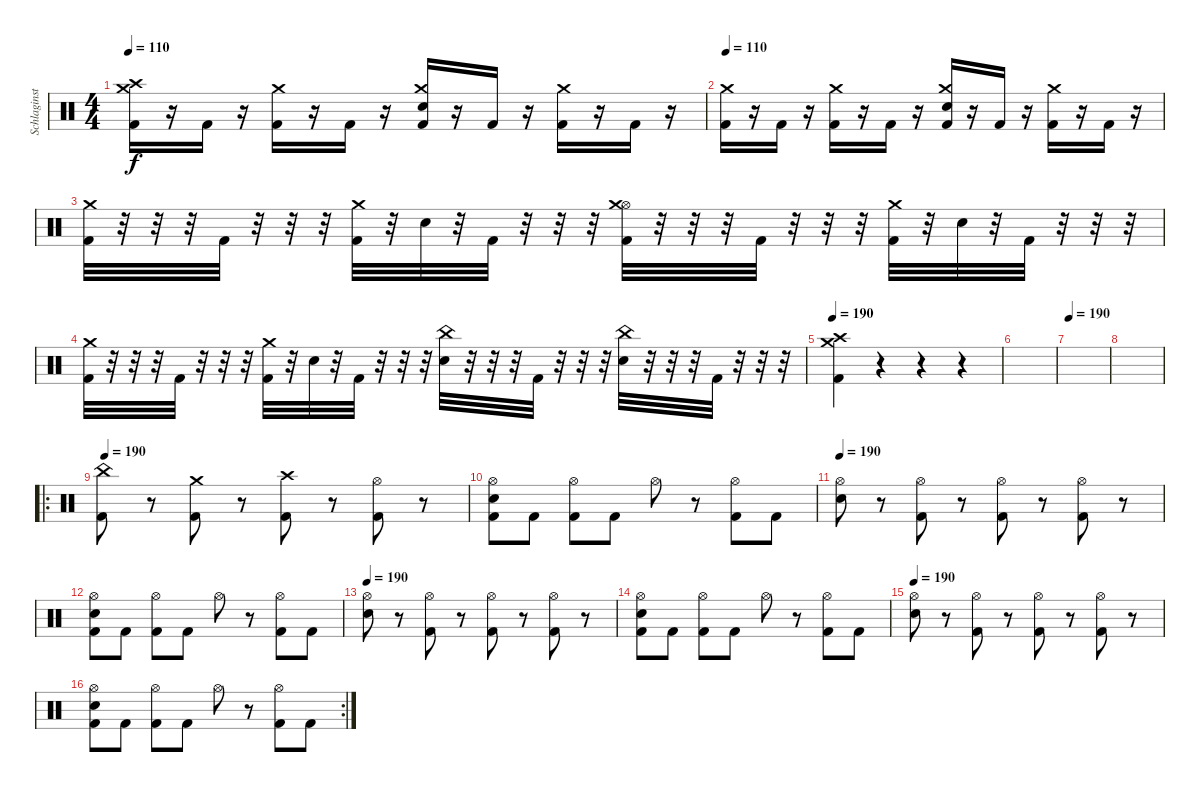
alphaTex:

\track ("Schlaginstrumente - Auswahl" "Schlaginst") {instrument percussion}
\staff {score}
\articulation defaults
\ts (4 4)
\tempo 110
\clef neutral
\ks c
("Kick (hit) 2" "Crash high (hit)" "Crash medium (hit)").16{dy f} r.16 "Kick (hit) 2".16 r.16 ("Kick (hit) 2" "Crash medium (hit)").16 r.16 "Kick (hit) 2".16 r.16 ("Kick (hit) 2" "Electric Snare (hit)" "Crash medium (hit)").16 r.16 "Kick (hit) 2".16 r.16 ("Kick (hit) 2" "Crash medium (hit)").16 r.16 "Kick (hit) 2".16 r.16 |
\tempo 110
("Kick (hit) 2" "Crash medium (hit)").16 r.16 "Kick (hit) 2".16 r.16 ("Kick (hit) 2" "Crash medium (hit)").16 r.16 "Kick (hit) 2".16 r.16 ("Kick (hit) 2" "Electric Snare (hit)" "Crash medium (hit)").16 r.16 "Kick (hit) 2".16 r.16 ("Kick (hit) 2" "Crash medium (hit)").16 r.16 "Kick (hit) 2".16 r.16 |
("Kick (hit) 2" "Crash medium (hit)").32 r.32 r.32 r.32 "Kick (hit) 2".32 r.32 r.32 r.32 ("Kick (hit) 2" "Crash medium (hit)").32 r.32 "Electric Snare (hit)".32 r.32 "Kick (hit) 2".32 r.32 r.32 r.32 ("Kick (hit) 2" "Hi-Hat (open)" "Crash medium (hit)").32 r.32 r.32 r.32 "Kick (hit) 2".32 r.32 r.32 r.32 ("Kick (hit) 2" "Crash medium (hit)").32 r.32 "Electric Snare (hit)".32 r.32 "Kick (hit) 2".32 r.32 r.32 r.32 |
("Kick (hit) 2" "Crash medium (hit)").32 r.32 r.32 r.32 "Kick (hit) 2".32 r.32 r.32 r.32 ("Kick (hit) 2" "Crash medium (hit)").32 r.32 "Electric Snare (hit)".32 r.32 "Kick (hit) 2".32 r.32 r.32 r.32 ("Electric Snare (hit)" "China (hit)").32 r.32 r.32 r.32 "Kick (hit) 2".32 r.32 r.32 r.32 ("Electric Snare (hit)" "China (hit)").32 r.32 r.32 r.32 "Kick (hit) 2".32 r.32 r.32 r.32 |
\tempo 190
("Kick (hit) 2" "Crash high (hit)" "Crash medium (hit)").4 r.4 r.4 r.4 |
|
\tempo 190
|
|
\ro
\tempo 190
("Kick (hit) 2" "China (hit)").8 r.8 ("Kick (hit) 2" "Crash medium (hit)").8 r.8 ("Kick (hit) 2" "Crash high (hit)").8 r.8 ("Kick (hit) 2" "Hi-Hat (open)").8 r.8 |
("Kick (hit) 2" "Electric Snare (hit)" "Hi-Hat (open)").8 "Kick (hit) 2".8 ("Kick (hit) 2" "Hi-Hat (open)").8 "Kick (hit) 2".8 "Hi-Hat (open)".8 r.8 ("Kick (hit) 2" "Hi-Hat (open)").8 "Kick (hit) 2".8 |
\tempo 190
("Electric Snare (hit)" "Hi-Hat (open)").8 r.8 ("Kick (hit) 2" "Hi-Hat (open)").8 r.8 ("Kick (hit) 2" "Hi-Hat (open)").8 r.8 ("Kick (hit) 2" "Hi-Hat (open)").8 r.8 |
("Kick (hit) 2" "Electric Snare (hit)" "Hi-Hat (open)").8 "Kick (hit) 2".8 ("Kick (hit) 2" "Hi-Hat (open)").8 "Kick (hit) 2".8 "Hi-Hat (open)".8 r.8 ("Kick (hit) 2" "Hi-Hat (open)").8 "Kick (hit) 2".8 |
\tempo 190
("Electric Snare (hit)" "Hi-Hat (open)").8 r.8 ("Kick (hit) 2" "Hi-Hat (open)").8 r.8 ("Kick (hit) 2" "Hi-Hat (open)").8 r.8 ("Kick (hit) 2" "Hi-Hat (open)").8 r.8 |
("Kick (hit) 2" "Electric Snare (hit)" "Hi-Hat (open)").8 "Kick (hit) 2".8 ("Kick (hit) 2" "Hi-Hat (open)").8 "Kick (hit) 2".8 "Hi-Hat (open)".8 r.8 ("Kick (hit) 2" "Hi-Hat (open)").8 "Kick (hit) 2".8 |
\tempo 190
("Electric Snare (hit)" "Hi-Hat (open)").8 r.8 ("Kick (hit) 2" "Hi-Hat (open)").8 r.8 ("Kick (hit) 2" "Hi-Hat (open)").8 r.8 ("Kick (hit) 2" "Hi-Hat (open)").8 r.8 |
\rc 2
("Kick (hit) 2" "Electric Snare (hit)" "Hi-Hat (open)").8 "Kick (hit) 2".8 ("Kick (hit) 2" "Hi-Hat (open)").8 "Kick (hit) 2".8 "Hi-Hat (open)".8 r.8 ("Kick (hit) 2" "Hi-Hat (open)").8 "Kick (hit) 2".8
